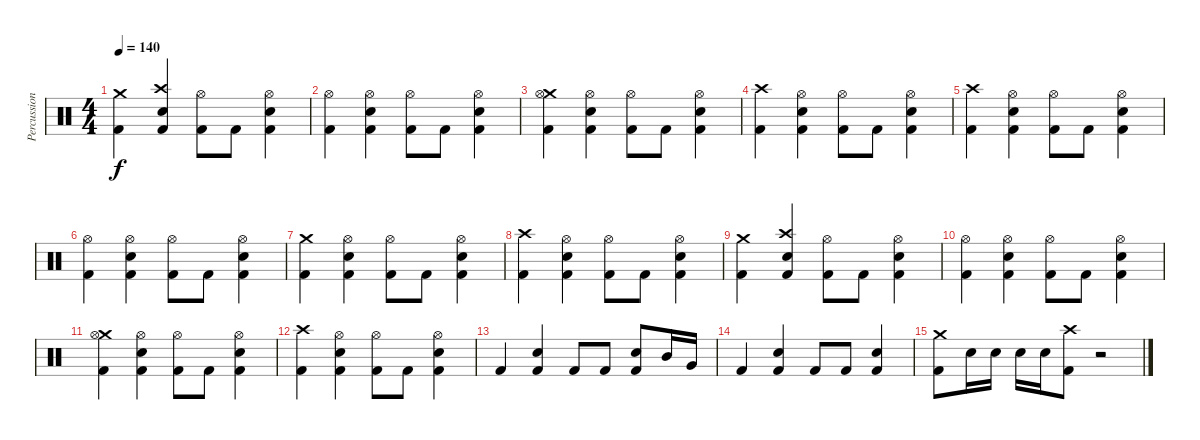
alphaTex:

\track ("Percussion" "Percussion") {instrument percussion}
\staff {score}
\articulation defaults
\ts (4 4)
\tempo 140
\clef neutral
\ks c
("Crash medium (hit)" "Kick (hit) 2").4{dy f} ("Crash high (hit)" "Snare (hit) 2" "Kick (hit) 2").4 ("Hi-Hat (open)" "Kick (hit) 2").8 "Kick (hit) 2".8 ("Snare (hit) 2" "Hi-Hat (open)" "Kick (hit) 2").4 |
("Hi-Hat (open)" "Kick (hit) 2").4 ("Snare (hit) 2" "Hi-Hat (open)" "Kick (hit) 2").4 ("Hi-Hat (open)" "Kick (hit) 2").8 "Kick (hit) 2".8 ("Snare (hit) 2" "Hi-Hat (open)" "Kick (hit) 2").4 |
("Crash medium (hit)" "Hi-Hat (open)" "Kick (hit) 2").4 ("Snare (hit) 2" "Hi-Hat (open)" "Kick (hit) 2").4 ("Hi-Hat (open)" "Kick (hit) 2").8 "Kick (hit) 2".8 ("Snare (hit) 2" "Hi-Hat (open)" "Kick (hit) 2").4 |
("Crash high (hit)" "Kick (hit) 2").4 ("Snare (hit) 2" "Hi-Hat (open)" "Kick (hit) 2").4 ("Hi-Hat (open)" "Kick (hit) 2").8 "Kick (hit) 2".8 ("Snare (hit) 2" "Hi-Hat (open)" "Kick (hit) 2").4 |
("Crash high (hit)" "Kick (hit) 2").4 ("Snare (hit) 2" "Hi-Hat (open)" "Kick (hit) 2").4 ("Hi-Hat (open)" "Kick (hit) 2").8 "Kick (hit) 2".8 ("Snare (hit) 2" "Hi-Hat (open)" "Kick (hit) 2").4 |
("Hi-Hat (open)" "Kick (hit) 2").4 ("Snare (hit) 2" "Hi-Hat (open)" "Kick (hit) 2").4 ("Hi-Hat (open)" "Kick (hit) 2").8 "Kick (hit) 2".8 ("Snare (hit) 2" "Hi-Hat (open)" "Kick (hit) 2").4 |
("Crash medium (hit)" "Kick (hit) 2").4 ("Snare (hit) 2" "Hi-Hat (open)" "Kick (hit) 2").4 ("Hi-Hat (open)" "Kick (hit) 2").8 "Kick (hit) 2".8 ("Snare (hit) 2" "Hi-Hat (open)" "Kick (hit) 2").4 |
("Crash high (hit)" "Kick (hit) 2").4 ("Snare (hit) 2" "Hi-Hat (open)" "Kick (hit) 2").4 ("Hi-Hat (open)" "Kick (hit) 2").8 "Kick (hit) 2".8 ("Snare (hit) 2" "Hi-Hat (open)" "Kick (hit) 2").4 |
("Crash medium (hit)" "Kick (hit) 2").4 ("Crash high (hit)" "Snare (hit) 2" "Kick (hit) 2").4 ("Hi-Hat (open)" "Kick (hit) 2").8 "Kick (hit) 2".8 ("Snare (hit) 2" "Hi-Hat (open)" "Kick (hit) 2").4 |
("Hi-Hat (open)" "Kick (hit) 2").4 ("Snare (hit) 2" "Hi-Hat (open)" "Kick (hit) 2").4 ("Hi-Hat (open)" "Kick (hit) 2").8 "Kick (hit) 2".8 ("Snare (hit) 2" "Hi-Hat (open)" "Kick (hit) 2").4 |
("Crash medium (hit)" "Hi-Hat (open)" "Kick (hit) 2").4 ("Snare (hit) 2" "Hi-Hat (open)" "Kick (hit) 2").4 ("Hi-Hat (open)" "Kick (hit) 2").8 "Kick (hit) 2".8 ("Snare (hit) 2" "Hi-Hat (open)" "Kick (hit) 2").4 |
("Crash high (hit)" "Kick (hit) 2").4 ("Snare (hit) 2" "Hi-Hat (open)" "Kick (hit) 2").4 ("Hi-Hat (open)" "Kick (hit) 2").8 "Kick (hit) 2".8 ("Snare (hit) 2" "Hi-Hat (open)" "Kick (hit) 2").4 |
"Kick (hit) 2".4 ("Snare (hit) 2" "Kick (hit) 2").4 "Kick (hit) 2".8 "Kick (hit) 2".8 ("Snare (hit) 2" "Kick (hit) 2").8 "Mid Tom (hit)".16 "Very Low Tom (hit)".16 |
"Kick (hit) 2".4 ("Snare (hit) 2" "Kick (hit) 2").4 "Kick (hit) 2".8 "Kick (hit) 2".8 ("Snare (hit) 2" "Kick (hit) 2").4 |
("Crash medium (hit)" "Kick (hit) 2").8 "Snare (hit) 2".16 "Snare (hit) 2".16 "Snare (hit) 2".16 "Snare (hit) 2".16 ("Crash high (hit)" "Kick (hit) 2").8 r.2
